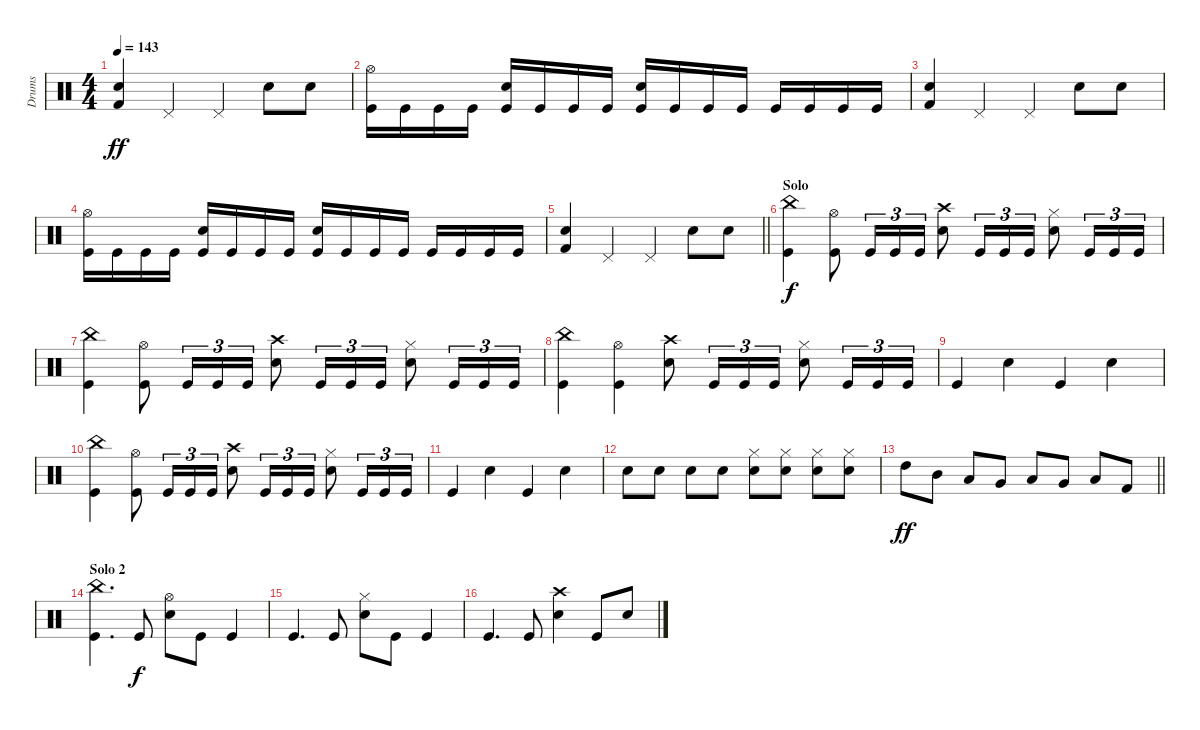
\track ("Drums" "Drums") {instrument percussion}
\staff {score}
\articulation defaults
\ts (4 4)
\tempo 143
\clef neutral
\ks c
("Kick (hit) 2" "Snare (hit) 2").4{dy ff} "Pedal Hi-Hat (hit)".4 "Pedal Hi-Hat (hit)".4 "Snare (hit) 2".8 "Snare (hit) 2".8 |
("Hi-Hat (open)" "Kick (hit)").16 "Kick (hit)".16 "Kick (hit)".16 "Kick (hit)".16 ("Snare (hit) 2" "Kick (hit)").16 "Kick (hit)".16 "Kick (hit)".16 "Kick (hit)".16 ("Snare (hit) 2" "Kick (hit)").16 "Kick (hit)".16 "Kick (hit)".16 "Kick (hit)".16 "Kick (hit)".16 "Kick (hit)".16 "Kick (hit)".16 "Kick (hit)".16 |
("Kick (hit) 2" "Snare (hit) 2").4 "Pedal Hi-Hat (hit)".4 "Pedal Hi-Hat (hit)".4 "Snare (hit) 2".8 "Snare (hit) 2".8 |
("Hi-Hat (open)" "Kick (hit)").16 "Kick (hit)".16 "Kick (hit)".16 "Kick (hit)".16 ("Snare (hit) 2" "Kick (hit)").16 "Kick (hit)".16 "Kick (hit)".16 "Kick (hit)".16 ("Snare (hit) 2" "Kick (hit)").16 "Kick (hit)".16 "Kick (hit)".16 "Kick (hit)".16 "Kick (hit)".16 "Kick (hit)".16 "Kick (hit)".16 "Kick (hit)".16 |
\barLineRight lightlight
("Kick (hit) 2" "Snare (hit) 2").4 "Pedal Hi-Hat (hit)".4 "Pedal Hi-Hat (hit)".4 "Snare (hit) 2".8 "Snare (hit) 2".8 |
\section ("" "Solo")
("China (hit)" "Kick (hit)").4{dy f} ("Hi-Hat (open)" "Kick (hit)").8 "Kick (hit)".16{tu (3 2)} "Kick (hit)".16{tu (3 2)} "Kick (hit)".16{tu (3 2)} ("Crash high (hit)" "Snare (hit) 2").8 "Kick (hit)".16{tu (3 2)} "Kick (hit)".16{tu (3 2)} "Kick (hit)".16{tu (3 2)} ("Hi-Hat (closed)" "Snare (hit) 2").8 "Kick (hit)".16{tu (3 2)} "Kick (hit)".16{tu (3 2)} "Kick (hit)".16{tu (3 2)} |
("China (hit)" "Kick (hit)").4 ("Hi-Hat (open)" "Kick (hit)").8 "Kick (hit)".16{tu (3 2)} "Kick (hit)".16{tu (3 2)} "Kick (hit)".16{tu (3 2)} ("Crash high (hit)" "Snare (hit) 2").8 "Kick (hit)".16{tu (3 2)} "Kick (hit)".16{tu (3 2)} "Kick (hit)".16{tu (3 2)} ("Hi-Hat (closed)" "Snare (hit) 2").8 "Kick (hit)".16{tu (3 2)} "Kick (hit)".16{tu (3 2)} "Kick (hit)".16{tu (3 2)} |
("China (hit)" "Kick (hit)").4 ("Hi-Hat (open)" "Kick (hit)").4 ("Crash high (hit)" "Snare (hit) 2").8 "Kick (hit)".16{tu (3 2)} "Kick (hit)".16{tu (3 2)} "Kick (hit)".16{tu (3 2)} ("Hi-Hat (closed)" "Snare (hit) 2").8 "Kick (hit)".16{tu (3 2)} "Kick (hit)".16{tu (3 2)} "Kick (hit)".16{tu (3 2)} |
"Kick (hit)".4 "Snare (hit) 2".4 "Kick (hit)".4 "Snare (hit) 2".4 |
("China (hit)" "Kick (hit)").4 ("Hi-Hat (open)" "Kick (hit)").8 "Kick (hit)".16{tu (3 2)} "Kick (hit)".16{tu (3 2)} "Kick (hit)".16{tu (3 2)} ("Crash high (hit)" "Snare (hit) 2").8 "Kick (hit)".16{tu (3 2)} "Kick (hit)".16{tu (3 2)} "Kick (hit)".16{tu (3 2)} ("Hi-Hat (closed)" "Snare (hit) 2").8 "Kick (hit)".16{tu (3 2)} "Kick (hit)".16{tu (3 2)} "Kick (hit)".16{tu (3 2)} |
"Kick (hit)".4 "Snare (hit) 2".4 "Kick (hit)".4 "Snare (hit) 2".4 |
"Snare (hit) 2".8 "Snare (hit) 2".8 "Snare (hit) 2".8 "Snare (hit) 2".8 ("Hi-Hat (closed)" "Snare (hit) 2").8 ("Hi-Hat (closed)" "Snare (hit) 2").8 ("Hi-Hat (closed)" "Snare (hit) 2").8 ("Hi-Hat (closed)" "Snare (hit) 2").8 |
\barLineRight lightlight "High Tom (hit)".8{dy ff} "Mid Tom (hit)".8 "Low Tom (hit)".8 "Very Low Tom (hit)".8 "Low Tom (hit)".8 "Very Low Tom (hit)".8 "Low Floor Tom (hit)".8 "Kick (hit) 2".8
|
\section ("" "Solo 2")
("China (hit)" "Kick (hit)").4{d} "Kick (hit)".8{dy f} ("Hi-Hat (open)" "Snare (hit) 2").8 "Kick (hit)".8 "Kick (hit)".4 |
"Kick (hit)".4{d} "Kick (hit)".8 ("Hi-Hat (closed)" "Snare (hit) 2").8 "Kick (hit)".8 "Kick (hit)".4 |
"Kick (hit)".4{d} "Kick (hit)".8 ("Crash high (hit)" "Snare (hit) 2").4 "Kick (hit)".8 "Snare (hit) 2".8
